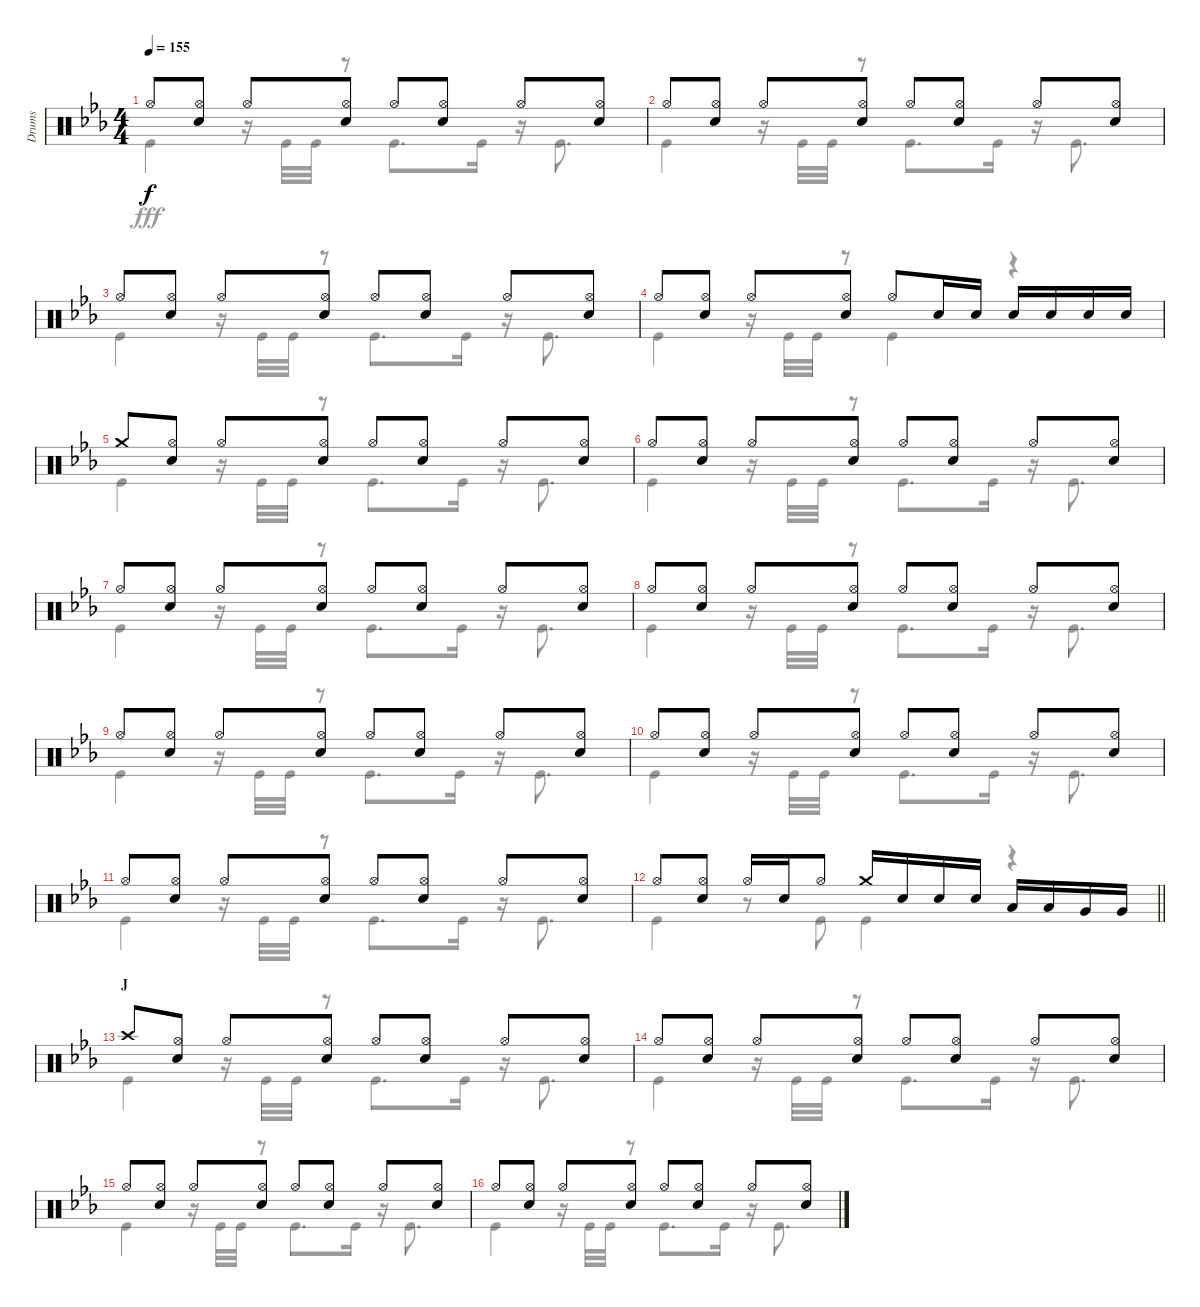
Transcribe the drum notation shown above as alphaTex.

\track ("Drums" "Drums") {instrument percussion}
\staff {score}
\articulation defaults
\voice
\ts (4 4)
\tempo 155
\clef neutral
\ks eb "Hi-Hat (open)".8{dy f}
("Hi-Hat (open)" "Snare (hit) 2").8 "Hi-Hat (open)".8 ("Hi-Hat (open)" "Snare (hit) 2").8 "Hi-Hat (open)".8 ("Hi-Hat (open)" "Snare (hit) 2").8 "Hi-Hat (open)".8 ("Hi-Hat (open)" "Snare (hit) 2").8 |
"Hi-Hat (open)".8 ("Hi-Hat (open)" "Snare (hit) 2").8 "Hi-Hat (open)".8 ("Hi-Hat (open)" "Snare (hit) 2").8 "Hi-Hat (open)".8 ("Hi-Hat (open)" "Snare (hit) 2").8 "Hi-Hat (open)".8 ("Hi-Hat (open)" "Snare (hit) 2").8 |
"Hi-Hat (open)".8 ("Hi-Hat (open)" "Snare (hit) 2").8 "Hi-Hat (open)".8 ("Hi-Hat (open)" "Snare (hit) 2").8 "Hi-Hat (open)".8 ("Hi-Hat (open)" "Snare (hit) 2").8 "Hi-Hat (open)".8 ("Hi-Hat (open)" "Snare (hit) 2").8 |
"Hi-Hat (open)".8 ("Hi-Hat (open)" "Snare (hit) 2").8 "Hi-Hat (open)".8 ("Hi-Hat (open)" "Snare (hit) 2").8 "Hi-Hat (open)".8 "Snare (hit) 2".16 "Snare (hit) 2".16 "Snare (hit) 2".16 "Snare (hit) 2".16 "Snare (hit) 2".16 "Snare (hit) 2".16 |
"Crash medium (hit)".8 ("Hi-Hat (open)" "Snare (hit) 2").8 "Hi-Hat (open)".8 ("Hi-Hat (open)" "Snare (hit) 2").8 "Hi-Hat (open)".8 ("Hi-Hat (open)" "Snare (hit) 2").8 "Hi-Hat (open)".8 ("Hi-Hat (open)" "Snare (hit) 2").8 |
"Hi-Hat (open)".8 ("Hi-Hat (open)" "Snare (hit) 2").8 "Hi-Hat (open)".8 ("Hi-Hat (open)" "Snare (hit) 2").8 "Hi-Hat (open)".8 ("Hi-Hat (open)" "Snare (hit) 2").8 "Hi-Hat (open)".8 ("Hi-Hat (open)" "Snare (hit) 2").8 |
"Hi-Hat (open)".8 ("Hi-Hat (open)" "Snare (hit) 2").8 "Hi-Hat (open)".8 ("Hi-Hat (open)" "Snare (hit) 2").8 "Hi-Hat (open)".8 ("Hi-Hat (open)" "Snare (hit) 2").8 "Hi-Hat (open)".8 ("Hi-Hat (open)" "Snare (hit) 2").8 |
"Hi-Hat (open)".8 ("Hi-Hat (open)" "Snare (hit) 2").8 "Hi-Hat (open)".8 ("Hi-Hat (open)" "Snare (hit) 2").8 "Hi-Hat (open)".8 ("Hi-Hat (open)" "Snare (hit) 2").8 "Hi-Hat (open)".8 ("Hi-Hat (open)" "Snare (hit) 2").8 |
"Hi-Hat (open)".8 ("Hi-Hat (open)" "Snare (hit) 2").8 "Hi-Hat (open)".8 ("Hi-Hat (open)" "Snare (hit) 2").8 "Hi-Hat (open)".8 ("Hi-Hat (open)" "Snare (hit) 2").8 "Hi-Hat (open)".8 ("Hi-Hat (open)" "Snare (hit) 2").8 |
"Hi-Hat (open)".8 ("Hi-Hat (open)" "Snare (hit) 2").8 "Hi-Hat (open)".8 ("Hi-Hat (open)" "Snare (hit) 2").8 "Hi-Hat (open)".8 ("Hi-Hat (open)" "Snare (hit) 2").8 "Hi-Hat (open)".8 ("Hi-Hat (open)" "Snare (hit) 2").8 |
"Hi-Hat (open)".8 ("Hi-Hat (open)" "Snare (hit) 2").8 "Hi-Hat (open)".8 ("Hi-Hat (open)" "Snare (hit) 2").8 "Hi-Hat (open)".8 ("Hi-Hat (open)" "Snare (hit) 2").8 "Hi-Hat (open)".8 ("Hi-Hat (open)" "Snare (hit) 2").8 |
\barLineRight lightlight "Hi-Hat (open)".8
("Hi-Hat (open)" "Snare (hit) 2").8 "Hi-Hat (open)".16 "Snare (hit) 2".16 "Hi-Hat (open)".8 "Crash medium (hit)".16 "Snare (hit) 2".16 "Snare (hit) 2".16 "Snare (hit) 2".16 "Low Tom (hit)".16 "Low Tom (hit)".16 "Very Low Tom (hit)".16 "Very Low Tom (hit)".16 |
\section ("" "J")
"Crash high (hit)".8 ("Hi-Hat (open)" "Snare (hit) 2").8 "Hi-Hat (open)".8 ("Hi-Hat (open)" "Snare (hit) 2").8 "Hi-Hat (open)".8 ("Hi-Hat (open)" "Snare (hit) 2").8 "Hi-Hat (open)".8 ("Hi-Hat (open)" "Snare (hit) 2").8 |
"Hi-Hat (open)".8 ("Hi-Hat (open)" "Snare (hit) 2").8 "Hi-Hat (open)".8 ("Hi-Hat (open)" "Snare (hit) 2").8 "Hi-Hat (open)".8 ("Hi-Hat (open)" "Snare (hit) 2").8 "Hi-Hat (open)".8 ("Hi-Hat (open)" "Snare (hit) 2").8 |
"Hi-Hat (open)".8 ("Hi-Hat (open)" "Snare (hit) 2").8 "Hi-Hat (open)".8 ("Hi-Hat (open)" "Snare (hit) 2").8 "Hi-Hat (open)".8 ("Hi-Hat (open)" "Snare (hit) 2").8 "Hi-Hat (open)".8 ("Hi-Hat (open)" "Snare (hit) 2").8 |
"Hi-Hat (open)".8 ("Hi-Hat (open)" "Snare (hit) 2").8 "Hi-Hat (open)".8 ("Hi-Hat (open)" "Snare (hit) 2").8 "Hi-Hat (open)".8 ("Hi-Hat (open)" "Snare (hit) 2").8 "Hi-Hat (open)".8 ("Hi-Hat (open)" "Snare (hit) 2").8
\voice
\clef neutral
\ottava regular
\simile none
\ks eb "Kick (hit)".4{dy fff}
r.16 "Kick (hit)".32 "Kick (hit)".32 r.8 "Kick (hit)".8{d} "Kick (hit)".16 r.16 "Kick (hit)".8{d} |
"Kick (hit)".4 r.16 "Kick (hit)".32 "Kick (hit)".32 r.8 "Kick (hit)".8{d} "Kick (hit)".16 r.16 "Kick (hit)".8{d} |
"Kick (hit)".4 r.16 "Kick (hit)".32 "Kick (hit)".32 r.8 "Kick (hit)".8{d} "Kick (hit)".16 r.16 "Kick (hit)".8{d} |
"Kick (hit)".4 r.16 "Kick (hit)".32 "Kick (hit)".32 r.8 "Kick (hit)".4 r.4 |
"Kick (hit)".4 r.16 "Kick (hit)".32 "Kick (hit)".32 r.8 "Kick (hit)".8{d} "Kick (hit)".16 r.16 "Kick (hit)".8{d} |
"Kick (hit)".4 r.16 "Kick (hit)".32 "Kick (hit)".32 r.8 "Kick (hit)".8{d} "Kick (hit)".16 r.16 "Kick (hit)".8{d} |
"Kick (hit)".4 r.16 "Kick (hit)".32 "Kick (hit)".32 r.8 "Kick (hit)".8{d} "Kick (hit)".16 r.16 "Kick (hit)".8{d} |
"Kick (hit)".4 r.16 "Kick (hit)".32 "Kick (hit)".32 r.8 "Kick (hit)".8{d} "Kick (hit)".16 r.16 "Kick (hit)".8{d} |
"Kick (hit)".4 r.16 "Kick (hit)".32 "Kick (hit)".32 r.8 "Kick (hit)".8{d} "Kick (hit)".16 r.16 "Kick (hit)".8{d} |
"Kick (hit)".4 r.16 "Kick (hit)".32 "Kick (hit)".32 r.8 "Kick (hit)".8{d} "Kick (hit)".16 r.16 "Kick (hit)".8{d} |
"Kick (hit)".4 r.16 "Kick (hit)".32 "Kick (hit)".32 r.8 "Kick (hit)".8{d} "Kick (hit)".16 r.16 "Kick (hit)".8{d} |
\barLineRight lightlight "Kick (hit)".4
r.8 "Kick (hit)".8 "Kick (hit)".4 r.4 |
"Kick (hit)".4 r.16 "Kick (hit)".32 "Kick (hit)".32 r.8 "Kick (hit)".8{d} "Kick (hit)".16 r.16 "Kick (hit)".8{d} |
"Kick (hit)".4 r.16 "Kick (hit)".32 "Kick (hit)".32 r.8 "Kick (hit)".8{d} "Kick (hit)".16 r.16 "Kick (hit)".8{d} |
"Kick (hit)".4 r.16 "Kick (hit)".32 "Kick (hit)".32 r.8 "Kick (hit)".8{d} "Kick (hit)".16 r.16 "Kick (hit)".8{d} |
"Kick (hit)".4 r.16 "Kick (hit)".32 "Kick (hit)".32 r.8 "Kick (hit)".8{d} "Kick (hit)".16 r.16 "Kick (hit)".8{d}
